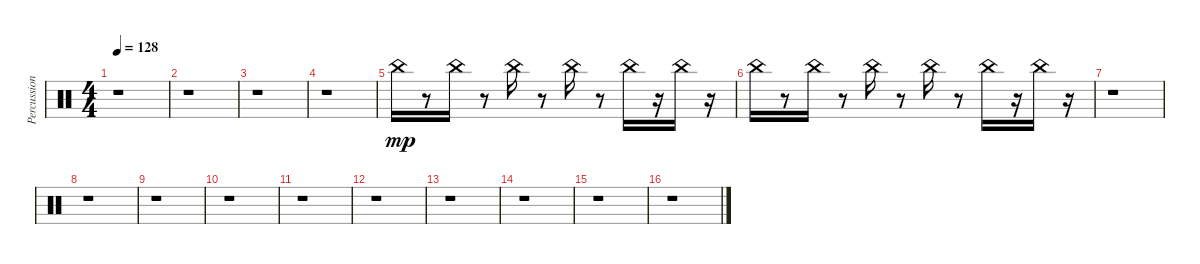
\track ("Percussion 'Sin'" "Percussion") {instrument percussion}
\staff {score}
\articulation defaults
\ts (4 4)
\tempo 128
\clef neutral
\ks c
r.1{dy mp} |
r.1 |
r.1 |
r.1 |
"China (hit)".16 r.8 "China (hit)".16 r.8 "China (hit)".16 r.8 "China (hit)".16 r.8 "China (hit)".16 r.16 "China (hit)".16 r.16 |
"China (hit)".16 r.8 "China (hit)".16 r.8 "China (hit)".16 r.8 "China (hit)".16 r.8 "China (hit)".16 r.16 "China (hit)".16 r.16 |
r.1 |
r.1 |
r.1 |
r.1 |
r.1 |
r.1 |
r.1 |
r.1 |
r.1 |
r.1
